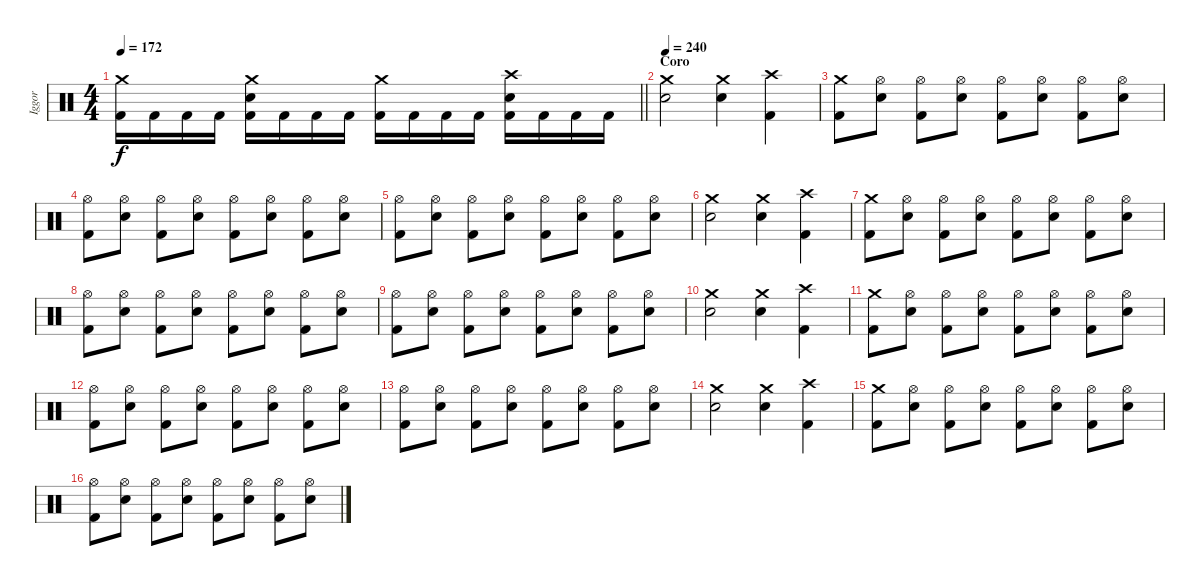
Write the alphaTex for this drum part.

\track ("Iggor" "Iggor") {instrument percussion}
\staff {score}
\articulation defaults
\ts (4 4)
\tempo 172
\clef neutral
\barLineRight lightlight
\ks c
("Crash medium (hit)" "Kick (hit) 2").16{dy f} "Kick (hit) 2".16 "Kick (hit) 2".16 "Kick (hit) 2".16 ("Crash medium (hit)" "Snare (hit) 2" "Kick (hit) 2").16 "Kick (hit) 2".16 "Kick (hit) 2".16 "Kick (hit) 2".16 ("Crash medium (hit)" "Kick (hit) 2").16 "Kick (hit) 2".16 "Kick (hit) 2".16 "Kick (hit) 2".16 ("Crash high (hit)" "Snare (hit) 2" "Kick (hit) 2").16 "Kick (hit) 2".16 "Kick (hit) 2".16 "Kick (hit) 2".16 |
\section ("" "Coro")
\tempo 240
("Crash medium (hit)" "Snare (hit) 2").2 ("Crash medium (hit)" "Snare (hit) 2").4 ("Crash high (hit)" "Kick (hit) 2").4 |
("Crash medium (hit)" "Kick (hit) 2").8 ("Hi-Hat (open)" "Snare (hit) 2").8 ("Hi-Hat (open)" "Kick (hit) 2").8 ("Hi-Hat (open)" "Snare (hit) 2").8 ("Hi-Hat (open)" "Kick (hit) 2").8 ("Hi-Hat (open)" "Snare (hit) 2").8 ("Hi-Hat (open)" "Kick (hit) 2").8 ("Hi-Hat (open)" "Snare (hit) 2").8 |
("Hi-Hat (open)" "Kick (hit) 2").8 ("Hi-Hat (open)" "Snare (hit) 2").8 ("Hi-Hat (open)" "Kick (hit) 2").8 ("Hi-Hat (open)" "Snare (hit) 2").8 ("Hi-Hat (open)" "Kick (hit) 2").8 ("Hi-Hat (open)" "Snare (hit) 2").8 ("Hi-Hat (open)" "Kick (hit) 2").8 ("Hi-Hat (open)" "Snare (hit) 2").8 |
("Hi-Hat (open)" "Kick (hit) 2").8 ("Hi-Hat (open)" "Snare (hit) 2").8 ("Hi-Hat (open)" "Kick (hit) 2").8 ("Hi-Hat (open)" "Snare (hit) 2").8 ("Hi-Hat (open)" "Kick (hit) 2").8 ("Hi-Hat (open)" "Snare (hit) 2").8 ("Hi-Hat (open)" "Kick (hit) 2").8 ("Hi-Hat (open)" "Snare (hit) 2").8 |
("Crash medium (hit)" "Snare (hit) 2").2 ("Crash medium (hit)" "Snare (hit) 2").4 ("Crash high (hit)" "Kick (hit) 2").4 |
("Crash medium (hit)" "Kick (hit) 2").8 ("Hi-Hat (open)" "Snare (hit) 2").8 ("Hi-Hat (open)" "Kick (hit) 2").8 ("Hi-Hat (open)" "Snare (hit) 2").8 ("Hi-Hat (open)" "Kick (hit) 2").8 ("Hi-Hat (open)" "Snare (hit) 2").8 ("Hi-Hat (open)" "Kick (hit) 2").8 ("Hi-Hat (open)" "Snare (hit) 2").8 |
("Hi-Hat (open)" "Kick (hit) 2").8 ("Hi-Hat (open)" "Snare (hit) 2").8 ("Hi-Hat (open)" "Kick (hit) 2").8 ("Hi-Hat (open)" "Snare (hit) 2").8 ("Hi-Hat (open)" "Kick (hit) 2").8 ("Hi-Hat (open)" "Snare (hit) 2").8 ("Hi-Hat (open)" "Kick (hit) 2").8 ("Hi-Hat (open)" "Snare (hit) 2").8 |
("Hi-Hat (open)" "Kick (hit) 2").8 ("Hi-Hat (open)" "Snare (hit) 2").8 ("Hi-Hat (open)" "Kick (hit) 2").8 ("Hi-Hat (open)" "Snare (hit) 2").8 ("Hi-Hat (open)" "Kick (hit) 2").8 ("Hi-Hat (open)" "Snare (hit) 2").8 ("Hi-Hat (open)" "Kick (hit) 2").8 ("Hi-Hat (open)" "Snare (hit) 2").8 |
("Crash medium (hit)" "Snare (hit) 2").2 ("Crash medium (hit)" "Snare (hit) 2").4 ("Crash high (hit)" "Kick (hit) 2").4 |
("Crash medium (hit)" "Kick (hit) 2").8 ("Hi-Hat (open)" "Snare (hit) 2").8 ("Hi-Hat (open)" "Kick (hit) 2").8 ("Hi-Hat (open)" "Snare (hit) 2").8 ("Hi-Hat (open)" "Kick (hit) 2").8 ("Hi-Hat (open)" "Snare (hit) 2").8 ("Hi-Hat (open)" "Kick (hit) 2").8 ("Hi-Hat (open)" "Snare (hit) 2").8 |
("Hi-Hat (open)" "Kick (hit) 2").8 ("Hi-Hat (open)" "Snare (hit) 2").8 ("Hi-Hat (open)" "Kick (hit) 2").8 ("Hi-Hat (open)" "Snare (hit) 2").8 ("Hi-Hat (open)" "Kick (hit) 2").8 ("Hi-Hat (open)" "Snare (hit) 2").8 ("Hi-Hat (open)" "Kick (hit) 2").8 ("Hi-Hat (open)" "Snare (hit) 2").8 |
("Hi-Hat (open)" "Kick (hit) 2").8 ("Hi-Hat (open)" "Snare (hit) 2").8 ("Hi-Hat (open)" "Kick (hit) 2").8 ("Hi-Hat (open)" "Snare (hit) 2").8 ("Hi-Hat (open)" "Kick (hit) 2").8 ("Hi-Hat (open)" "Snare (hit) 2").8 ("Hi-Hat (open)" "Kick (hit) 2").8 ("Hi-Hat (open)" "Snare (hit) 2").8 |
("Crash medium (hit)" "Snare (hit) 2").2 ("Crash medium (hit)" "Snare (hit) 2").4 ("Crash high (hit)" "Kick (hit) 2").4 |
("Crash medium (hit)" "Kick (hit) 2").8 ("Hi-Hat (open)" "Snare (hit) 2").8 ("Hi-Hat (open)" "Kick (hit) 2").8 ("Hi-Hat (open)" "Snare (hit) 2").8 ("Hi-Hat (open)" "Kick (hit) 2").8 ("Hi-Hat (open)" "Snare (hit) 2").8 ("Hi-Hat (open)" "Kick (hit) 2").8 ("Hi-Hat (open)" "Snare (hit) 2").8 |
("Hi-Hat (open)" "Kick (hit) 2").8 ("Hi-Hat (open)" "Snare (hit) 2").8 ("Hi-Hat (open)" "Kick (hit) 2").8 ("Hi-Hat (open)" "Snare (hit) 2").8 ("Hi-Hat (open)" "Kick (hit) 2").8 ("Hi-Hat (open)" "Snare (hit) 2").8 ("Hi-Hat (open)" "Kick (hit) 2").8 ("Hi-Hat (open)" "Snare (hit) 2").8
